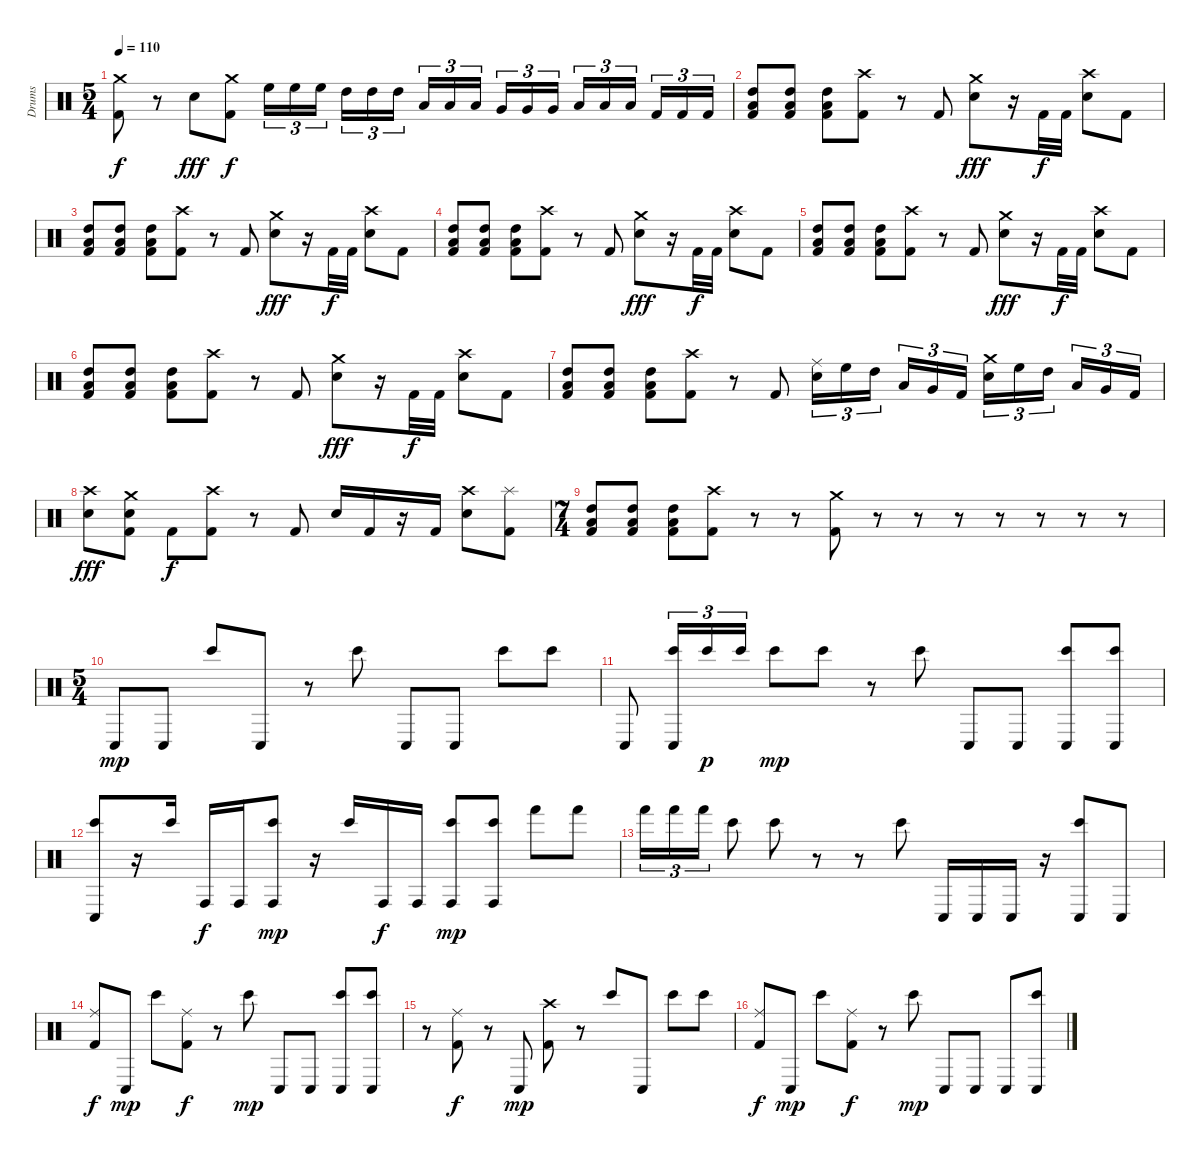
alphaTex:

\track ("Drums" "Drums") {instrument percussion}
\staff {score}
\articulation defaults
\ts (5 4)
\tempo 110
\clef neutral
\ks c
("Crash medium (hit)" "Kick (hit) 2").8{dy f} r.8 "Electric Snare (hit)".8{dy fff} ("Crash medium (hit)" "Kick (hit) 2").8{dy f} "High Floor Tom (hit)".16{tu (3 2)} "High Floor Tom (hit)".16{tu (3 2)} "High Floor Tom (hit)".16{tu (3 2)} "High Tom (hit)".16{tu (3 2)} "High Tom (hit)".16{tu (3 2)} "High Tom (hit)".16{tu (3 2)} "Low Tom (hit)".16{tu (3 2)} "Low Tom (hit)".16{tu (3 2)} "Low Tom (hit)".16{tu (3 2)} "Very Low Tom (hit)".16{tu (3 2)} "Very Low Tom (hit)".16{tu (3 2)} "Very Low Tom (hit)".16{tu (3 2)} "Low Floor Tom (hit)".16{tu (3 2)} "Low Floor Tom (hit)".16{tu (3 2)} "Low Floor Tom (hit)".16{tu (3 2)} "Kick (hit) 2".16{tu (3 2)} "Kick (hit) 2".16{tu (3 2)} "Kick (hit) 2".16{tu (3 2)} |
("Low Floor Tom (hit)" "High Tom (hit)" "Kick (hit) 2").8 ("Low Floor Tom (hit)" "High Tom (hit)" "Kick (hit) 2").8 ("Low Floor Tom (hit)" "High Tom (hit)" "Kick (hit) 2").8 ("Crash high (hit)" "Kick (hit) 2").8 r.8 "Kick (hit) 2".8 ("Crash medium (hit)" "Electric Snare (hit)").8{dy fff} r.16 "Kick (hit) 2".32{dy f} "Kick (hit) 2".32 ("Crash high (hit)" "Electric Snare (hit)").8 "Kick (hit) 2".8 |
("Low Floor Tom (hit)" "High Tom (hit)" "Kick (hit) 2").8 ("Low Floor Tom (hit)" "High Tom (hit)" "Kick (hit) 2").8 ("Low Floor Tom (hit)" "High Tom (hit)" "Kick (hit) 2").8 ("Crash high (hit)" "Kick (hit) 2").8 r.8 "Kick (hit) 2".8 ("Crash medium (hit)" "Electric Snare (hit)").8{dy fff} r.16 "Kick (hit) 2".32{dy f} "Kick (hit) 2".32 ("Crash high (hit)" "Electric Snare (hit)").8 "Kick (hit) 2".8 |
("Low Floor Tom (hit)" "High Tom (hit)" "Kick (hit) 2").8 ("Low Floor Tom (hit)" "High Tom (hit)" "Kick (hit) 2").8 ("Low Floor Tom (hit)" "High Tom (hit)" "Kick (hit) 2").8 ("Crash high (hit)" "Kick (hit) 2").8 r.8 "Kick (hit) 2".8 ("Crash medium (hit)" "Electric Snare (hit)").8{dy fff} r.16 "Kick (hit) 2".32{dy f} "Kick (hit) 2".32 ("Crash high (hit)" "Electric Snare (hit)").8 "Kick (hit) 2".8 |
("Low Floor Tom (hit)" "High Tom (hit)" "Kick (hit) 2").8 ("Low Floor Tom (hit)" "High Tom (hit)" "Kick (hit) 2").8 ("Low Floor Tom (hit)" "High Tom (hit)" "Kick (hit) 2").8 ("Crash high (hit)" "Kick (hit) 2").8 r.8 "Kick (hit) 2".8 ("Crash medium (hit)" "Electric Snare (hit)").8{dy fff} r.16 "Kick (hit) 2".32{dy f} "Kick (hit) 2".32 ("Crash high (hit)" "Electric Snare (hit)").8 "Kick (hit) 2".8 |
("Low Floor Tom (hit)" "High Tom (hit)" "Kick (hit) 2").8 ("Low Floor Tom (hit)" "High Tom (hit)" "Kick (hit) 2").8 ("Low Floor Tom (hit)" "High Tom (hit)" "Kick (hit) 2").8 ("Crash high (hit)" "Kick (hit) 2").8 r.8 "Kick (hit) 2".8 ("Crash medium (hit)" "Electric Snare (hit)").8{dy fff} r.16 "Kick (hit) 2".32{dy f} "Kick (hit) 2".32 ("Crash high (hit)" "Electric Snare (hit)").8 "Kick (hit) 2".8 |
("Low Floor Tom (hit)" "High Tom (hit)" "Kick (hit) 2").8 ("Low Floor Tom (hit)" "High Tom (hit)" "Kick (hit) 2").8 ("Low Floor Tom (hit)" "High Tom (hit)" "Kick (hit) 2").8 ("Crash high (hit)" "Kick (hit) 2").8 r.8 "Kick (hit) 2".8 ("Ride (middle)" "Electric Snare (hit)").16{tu (3 2)} "High Floor Tom (hit)".16{tu (3 2)} "High Tom (hit)".16{tu (3 2)} "Low Tom (hit)".16{tu (3 2)} "Very Low Tom (hit)".16{tu (3 2)} "Kick (hit) 2".16{tu (3 2)} ("Crash medium (hit)" "Electric Snare (hit)").16{tu (3 2)} "High Floor Tom (hit)".16{tu (3 2)} "High Tom (hit)".16{tu (3 2)} "Low Tom (hit)".16{tu (3 2)} "Very Low Tom (hit)".16{tu (3 2)} "Kick (hit) 2".16{tu (3 2)} |
("Crash high (hit)" "Electric Snare (hit)").8{dy fff} ("Crash medium (hit)" "Electric Snare (hit)" "Kick (hit) 2").8 "Kick (hit) 2".8{dy f} ("Crash high (hit)" "Kick (hit) 2").8 r.8 "Kick (hit) 2".8 "Electric Snare (hit)".16 "Kick (hit) 2".16 r.16 "Kick (hit) 2".16 ("Crash high (hit)" "Electric Snare (hit)").8 ("Splash (hit)" "Kick (hit) 2").8 |
\ts (7 4)
("Low Floor Tom (hit)" "High Tom (hit)" "Kick (hit) 2").8 ("Low Floor Tom (hit)" "High Tom (hit)" "Kick (hit) 2").8 ("Low Floor Tom (hit)" "High Tom (hit)" "Kick (hit) 2").8 ("Crash high (hit)" "Kick (hit) 2").8 r.8 r.8 ("Crash medium (hit)" "Kick (hit) 2").8 r.8 r.8 r.8 r.8 r.8 r.8 r.8 |
\ts (5 4)
"Conga low (hit)".8{dy mp} "Conga low (hit)".8 "Bongo High (hit)".8 "Conga low (hit)".8 r.8 "Bongo High (hit)".8 "Conga low (hit)".8 "Conga low (hit)".8 "Bongo High (hit)".8 "Bongo High (hit)".8 |
"Conga low (hit)".8 ("Bongo High (hit)" "Conga low (hit)").16{tu (3 2)} "Bongo High (hit)".16{tu (3 2) dy p} "Bongo High (hit)".16{tu (3 2)} "Bongo High (hit)".8{dy mp} "Bongo High (hit)".8 r.8 "Bongo High (hit)".8 "Conga low (hit)".8 "Conga low (hit)".8 ("Bongo High (hit)" "Conga low (hit)").8 ("Bongo High (hit)" "Conga low (hit)").8 |
("Bongo High (hit)" "Conga low (hit)").8 r.16 "Bongo High (hit)".16 "Conga high (hit)".16{dy f} "Conga high (hit)".16 ("Bongo High (hit)" "Conga high (hit)").8{dy mp} r.16 "Bongo High (hit)".16 "Conga high (hit)".16{dy f} "Conga high (hit)".16 ("Bongo High (hit)" "Conga high (hit)").8{dy mp} ("Bongo High (hit)" "Conga high (hit)").8 "Hand (hit)".8 "Hand (hit)".8 |
"Hand (hit)".16{tu (3 2)} "Hand (hit)".16{tu (3 2)} "Hand (hit)".16{tu (3 2)} "Bongo High (hit)".8 "Bongo High (hit)".8 r.8 r.8 "Bongo High (hit)".8 "Conga low (hit)".16 "Conga low (hit)".16 "Conga low (hit)".16 r.16 ("Bongo High (hit)" "Conga low (hit)").8 "Conga low (hit)".8 |
("Ride (middle)" "Kick (hit) 2").8{dy f} "Conga low (hit)".8{dy mp} "Bongo High (hit)".8 ("Ride (middle)" "Kick (hit) 2").8{dy f} r.8 "Bongo High (hit)".8{dy mp} "Conga low (hit)".8 "Conga low (hit)".8 ("Bongo High (hit)" "Conga low (hit)").8 ("Bongo High (hit)" "Conga low (hit)").8 |
r.8 ("Ride (middle)" "Kick (hit) 2").8{dy f} r.8 "Conga low (hit)".8{dy mp} ("Crash high (hit)" "Kick (hit) 2").8 r.8 "Bongo High (hit)".8 "Conga low (hit)".8 "Bongo High (hit)".8 "Bongo High (hit)".8 |
("Ride (middle)" "Kick (hit) 2").8{dy f} "Conga low (hit)".8{dy mp} "Bongo High (hit)".8 ("Ride (middle)" "Kick (hit) 2").8{dy f} r.8 "Bongo High (hit)".8{dy mp} "Conga low (hit)".8 "Conga low (hit)".8 "Conga low (hit)".8 ("Bongo High (hit)" "Conga low (hit)").8
